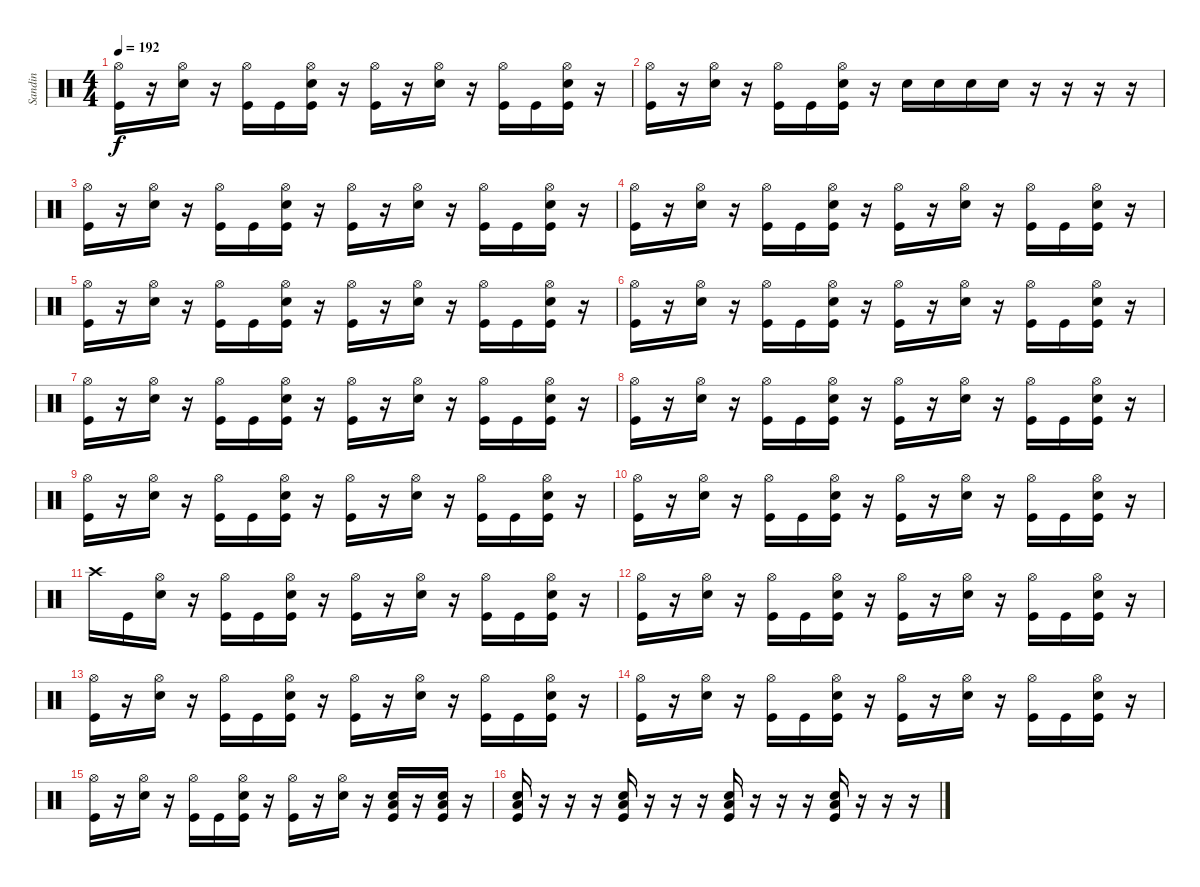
\track ("Sandin" "Sandin") {instrument percussion}
\staff {score}
\articulation defaults
\ts (4 4)
\tempo 192
\clef neutral
\ks c
("Hi-Hat (open)" "Kick (hit)").16{dy f} r.16 ("Hi-Hat (open)" "Electric Snare (hit)").16 r.16 ("Hi-Hat (open)" "Kick (hit)").16 "Kick (hit)".16 ("Hi-Hat (open)" "Electric Snare (hit)" "Kick (hit)").16 r.16 ("Hi-Hat (open)" "Kick (hit)").16 r.16 ("Hi-Hat (open)" "Electric Snare (hit)").16 r.16 ("Hi-Hat (open)" "Kick (hit)").16 "Kick (hit)".16 ("Hi-Hat (open)" "Electric Snare (hit)" "Kick (hit)").16 r.16 |
("Hi-Hat (open)" "Kick (hit)").16 r.16 ("Hi-Hat (open)" "Electric Snare (hit)").16 r.16 ("Hi-Hat (open)" "Kick (hit)").16 "Kick (hit)".16 ("Hi-Hat (open)" "Electric Snare (hit)" "Kick (hit)").16 r.16 "Electric Snare (hit)".16 "Electric Snare (hit)".16 "Electric Snare (hit)".16 "Electric Snare (hit)".16 r.16 r.16 r.16 r.16 |
("Hi-Hat (open)" "Kick (hit)").16 r.16 ("Hi-Hat (open)" "Electric Snare (hit)").16 r.16 ("Hi-Hat (open)" "Kick (hit)").16 "Kick (hit)".16 ("Hi-Hat (open)" "Electric Snare (hit)" "Kick (hit)").16 r.16 ("Hi-Hat (open)" "Kick (hit)").16 r.16 ("Hi-Hat (open)" "Electric Snare (hit)").16 r.16 ("Hi-Hat (open)" "Kick (hit)").16 "Kick (hit)".16 ("Hi-Hat (open)" "Electric Snare (hit)" "Kick (hit)").16 r.16 |
("Hi-Hat (open)" "Kick (hit)").16 r.16 ("Hi-Hat (open)" "Electric Snare (hit)").16 r.16 ("Hi-Hat (open)" "Kick (hit)").16 "Kick (hit)".16 ("Hi-Hat (open)" "Electric Snare (hit)" "Kick (hit)").16 r.16 ("Hi-Hat (open)" "Kick (hit)").16 r.16 ("Hi-Hat (open)" "Electric Snare (hit)").16 r.16 ("Hi-Hat (open)" "Kick (hit)").16 "Kick (hit)".16 ("Hi-Hat (open)" "Electric Snare (hit)" "Kick (hit)").16 r.16 |
("Hi-Hat (open)" "Kick (hit)").16 r.16 ("Hi-Hat (open)" "Electric Snare (hit)").16 r.16 ("Hi-Hat (open)" "Kick (hit)").16 "Kick (hit)".16 ("Hi-Hat (open)" "Electric Snare (hit)" "Kick (hit)").16 r.16 ("Hi-Hat (open)" "Kick (hit)").16 r.16 ("Hi-Hat (open)" "Electric Snare (hit)").16 r.16 ("Hi-Hat (open)" "Kick (hit)").16 "Kick (hit)".16 ("Hi-Hat (open)" "Electric Snare (hit)" "Kick (hit)").16 r.16 |
("Hi-Hat (open)" "Kick (hit)").16 r.16 ("Hi-Hat (open)" "Electric Snare (hit)").16 r.16 ("Hi-Hat (open)" "Kick (hit)").16 "Kick (hit)".16 ("Hi-Hat (open)" "Electric Snare (hit)" "Kick (hit)").16 r.16 ("Hi-Hat (open)" "Kick (hit)").16 r.16 ("Hi-Hat (open)" "Electric Snare (hit)").16 r.16 ("Hi-Hat (open)" "Kick (hit)").16 "Kick (hit)".16 ("Hi-Hat (open)" "Electric Snare (hit)" "Kick (hit)").16 r.16 |
("Hi-Hat (open)" "Kick (hit)").16 r.16 ("Hi-Hat (open)" "Electric Snare (hit)").16 r.16 ("Hi-Hat (open)" "Kick (hit)").16 "Kick (hit)".16 ("Hi-Hat (open)" "Electric Snare (hit)" "Kick (hit)").16 r.16 ("Hi-Hat (open)" "Kick (hit)").16 r.16 ("Hi-Hat (open)" "Electric Snare (hit)").16 r.16 ("Hi-Hat (open)" "Kick (hit)").16 "Kick (hit)".16 ("Hi-Hat (open)" "Electric Snare (hit)" "Kick (hit)").16 r.16 |
("Hi-Hat (open)" "Kick (hit)").16 r.16 ("Hi-Hat (open)" "Electric Snare (hit)").16 r.16 ("Hi-Hat (open)" "Kick (hit)").16 "Kick (hit)".16 ("Hi-Hat (open)" "Electric Snare (hit)" "Kick (hit)").16 r.16 ("Hi-Hat (open)" "Kick (hit)").16 r.16 ("Hi-Hat (open)" "Electric Snare (hit)").16 r.16 ("Hi-Hat (open)" "Kick (hit)").16 "Kick (hit)".16 ("Hi-Hat (open)" "Electric Snare (hit)" "Kick (hit)").16 r.16 |
("Hi-Hat (open)" "Kick (hit)").16 r.16 ("Hi-Hat (open)" "Electric Snare (hit)").16 r.16 ("Hi-Hat (open)" "Kick (hit)").16 "Kick (hit)".16 ("Hi-Hat (open)" "Electric Snare (hit)" "Kick (hit)").16 r.16 ("Hi-Hat (open)" "Kick (hit)").16 r.16 ("Hi-Hat (open)" "Electric Snare (hit)").16 r.16 ("Hi-Hat (open)" "Kick (hit)").16 "Kick (hit)".16 ("Hi-Hat (open)" "Electric Snare (hit)" "Kick (hit)").16 r.16 |
("Hi-Hat (open)" "Kick (hit)").16 r.16 ("Hi-Hat (open)" "Electric Snare (hit)").16 r.16 ("Hi-Hat (open)" "Kick (hit)").16 "Kick (hit)".16 ("Hi-Hat (open)" "Electric Snare (hit)" "Kick (hit)").16 r.16 ("Hi-Hat (open)" "Kick (hit)").16 r.16 ("Hi-Hat (open)" "Electric Snare (hit)").16 r.16 ("Hi-Hat (open)" "Kick (hit)").16 "Kick (hit)".16 ("Hi-Hat (open)" "Electric Snare (hit)" "Kick (hit)").16 r.16 |
"Crash high (hit)".16 "Kick (hit)".16 ("Hi-Hat (open)" "Electric Snare (hit)").16 r.16 ("Hi-Hat (open)" "Kick (hit)").16 "Kick (hit)".16 ("Hi-Hat (open)" "Electric Snare (hit)" "Kick (hit)").16 r.16 ("Hi-Hat (open)" "Kick (hit)").16 r.16 ("Hi-Hat (open)" "Electric Snare (hit)").16 r.16 ("Hi-Hat (open)" "Kick (hit)").16 "Kick (hit)".16 ("Hi-Hat (open)" "Electric Snare (hit)" "Kick (hit)").16 r.16 |
("Hi-Hat (open)" "Kick (hit)").16 r.16 ("Hi-Hat (open)" "Electric Snare (hit)").16 r.16 ("Hi-Hat (open)" "Kick (hit)").16 "Kick (hit)".16 ("Hi-Hat (open)" "Electric Snare (hit)" "Kick (hit)").16 r.16 ("Hi-Hat (open)" "Kick (hit)").16 r.16 ("Hi-Hat (open)" "Electric Snare (hit)").16 r.16 ("Hi-Hat (open)" "Kick (hit)").16 "Kick (hit)".16 ("Hi-Hat (open)" "Electric Snare (hit)" "Kick (hit)").16 r.16 |
("Hi-Hat (open)" "Kick (hit)").16 r.16 ("Hi-Hat (open)" "Electric Snare (hit)").16 r.16 ("Hi-Hat (open)" "Kick (hit)").16 "Kick (hit)".16 ("Hi-Hat (open)" "Electric Snare (hit)" "Kick (hit)").16 r.16 ("Hi-Hat (open)" "Kick (hit)").16 r.16 ("Hi-Hat (open)" "Electric Snare (hit)").16 r.16 ("Hi-Hat (open)" "Kick (hit)").16 "Kick (hit)".16 ("Hi-Hat (open)" "Electric Snare (hit)" "Kick (hit)").16 r.16 |
("Hi-Hat (open)" "Kick (hit)").16 r.16 ("Hi-Hat (open)" "Electric Snare (hit)").16 r.16 ("Hi-Hat (open)" "Kick (hit)").16 "Kick (hit)".16 ("Hi-Hat (open)" "Electric Snare (hit)" "Kick (hit)").16 r.16 ("Hi-Hat (open)" "Kick (hit)").16 r.16 ("Hi-Hat (open)" "Electric Snare (hit)").16 r.16 ("Hi-Hat (open)" "Kick (hit)").16 "Kick (hit)".16 ("Hi-Hat (open)" "Electric Snare (hit)" "Kick (hit)").16 r.16 |
("Hi-Hat (open)" "Kick (hit)").16 r.16 ("Hi-Hat (open)" "Electric Snare (hit)").16 r.16 ("Hi-Hat (open)" "Kick (hit)").16 "Kick (hit)".16 ("Hi-Hat (open)" "Electric Snare (hit)" "Kick (hit)").16 r.16 ("Hi-Hat (open)" "Kick (hit)").16 r.16 ("Hi-Hat (open)" "Electric Snare (hit)").16 r.16 ("Electric Snare (hit)" "Low Tom (hit)" "Kick (hit)").16 r.16 ("Electric Snare (hit)" "Low Tom (hit)" "Kick (hit)").16 r.16 |
("Electric Snare (hit)" "Low Tom (hit)" "Kick (hit)").16 r.16 r.16 r.16 ("Electric Snare (hit)" "Low Tom (hit)" "Kick (hit)").16 r.16 r.16 r.16 ("Electric Snare (hit)" "Low Tom (hit)" "Kick (hit)").16 r.16 r.16 r.16 ("Electric Snare (hit)" "Low Tom (hit)" "Kick (hit)").16 r.16 r.16 r.16
